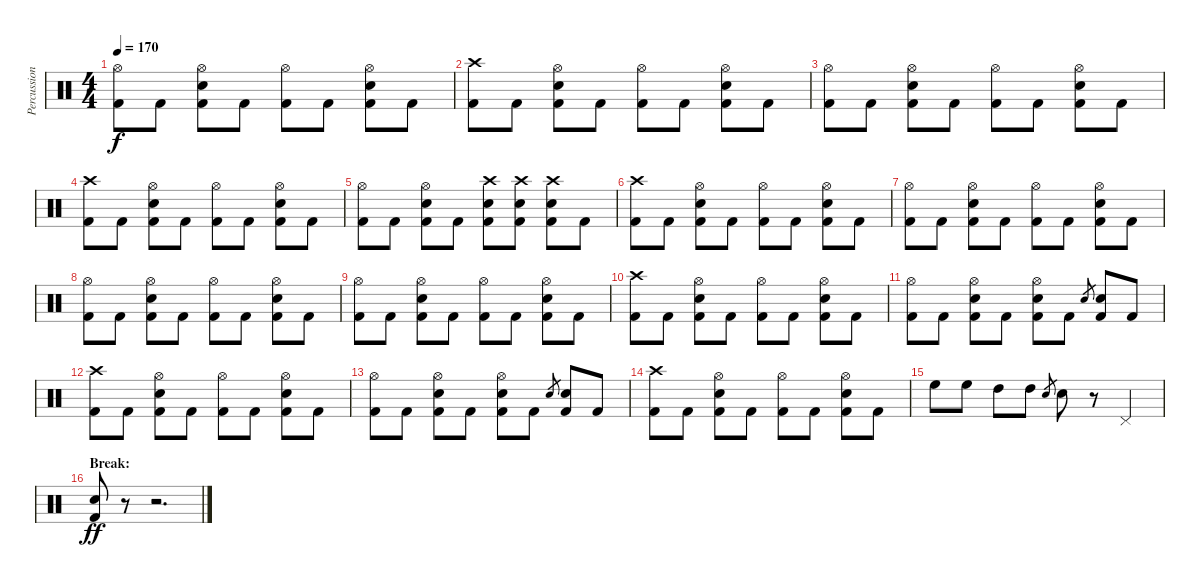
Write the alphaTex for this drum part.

\track ("Percussion" "Percussion") {instrument percussion}
\staff {score}
\articulation defaults
\ts (4 4)
\tempo 170
\clef neutral
\ks c
("Hi-Hat (open)" "Kick (hit) 2").8{dy f} "Kick (hit) 2".8 ("Hi-Hat (open)" "Snare (hit) 2" "Kick (hit) 2").8 "Kick (hit) 2".8 ("Hi-Hat (open)" "Kick (hit) 2").8 "Kick (hit) 2".8 ("Hi-Hat (open)" "Snare (hit) 2" "Kick (hit) 2").8 "Kick (hit) 2".8 |
("Crash high (hit)" "Kick (hit) 2").8 "Kick (hit) 2".8 ("Hi-Hat (open)" "Snare (hit) 2" "Kick (hit) 2").8 "Kick (hit) 2".8 ("Hi-Hat (open)" "Kick (hit) 2").8 "Kick (hit) 2".8 ("Hi-Hat (open)" "Snare (hit) 2" "Kick (hit) 2").8 "Kick (hit) 2".8 |
("Hi-Hat (open)" "Kick (hit) 2").8 "Kick (hit) 2".8 ("Hi-Hat (open)" "Snare (hit) 2" "Kick (hit) 2").8 "Kick (hit) 2".8 ("Hi-Hat (open)" "Kick (hit) 2").8 "Kick (hit) 2".8 ("Hi-Hat (open)" "Snare (hit) 2" "Kick (hit) 2").8 "Kick (hit) 2".8 |
("Crash high (hit)" "Kick (hit) 2").8 "Kick (hit) 2".8 ("Hi-Hat (open)" "Snare (hit) 2" "Kick (hit) 2").8 "Kick (hit) 2".8 ("Hi-Hat (open)" "Kick (hit) 2").8 "Kick (hit) 2".8 ("Hi-Hat (open)" "Snare (hit) 2" "Kick (hit) 2").8 "Kick (hit) 2".8 |
("Hi-Hat (open)" "Kick (hit) 2").8 "Kick (hit) 2".8 ("Hi-Hat (open)" "Snare (hit) 2" "Kick (hit) 2").8 "Kick (hit) 2".8 ("Crash high (hit)" "Snare (hit) 2" "Kick (hit) 2").8 ("Crash high (hit)" "Snare (hit) 2" "Kick (hit) 2").8 ("Crash high (hit)" "Snare (hit) 2" "Kick (hit) 2").8 "Kick (hit) 2".8 |
("Crash high (hit)" "Kick (hit) 2").8 "Kick (hit) 2".8 ("Hi-Hat (open)" "Snare (hit) 2" "Kick (hit) 2").8 "Kick (hit) 2".8 ("Hi-Hat (open)" "Kick (hit) 2").8 "Kick (hit) 2".8 ("Hi-Hat (open)" "Snare (hit) 2" "Kick (hit) 2").8 "Kick (hit) 2".8 |
("Hi-Hat (open)" "Kick (hit) 2").8 "Kick (hit) 2".8 ("Hi-Hat (open)" "Snare (hit) 2" "Kick (hit) 2").8 "Kick (hit) 2".8 ("Hi-Hat (open)" "Kick (hit) 2").8 "Kick (hit) 2".8 ("Hi-Hat (open)" "Snare (hit) 2" "Kick (hit) 2").8 "Kick (hit) 2".8 |
("Hi-Hat (open)" "Kick (hit) 2").8 "Kick (hit) 2".8 ("Hi-Hat (open)" "Snare (hit) 2" "Kick (hit) 2").8 "Kick (hit) 2".8 ("Hi-Hat (open)" "Kick (hit) 2").8 "Kick (hit) 2".8 ("Hi-Hat (open)" "Snare (hit) 2" "Kick (hit) 2").8 "Kick (hit) 2".8 |
("Hi-Hat (open)" "Kick (hit) 2").8 "Kick (hit) 2".8 ("Hi-Hat (open)" "Snare (hit) 2" "Kick (hit) 2").8 "Kick (hit) 2".8 ("Hi-Hat (open)" "Kick (hit) 2").8 "Kick (hit) 2".8 ("Hi-Hat (open)" "Snare (hit) 2" "Kick (hit) 2").8 "Kick (hit) 2".8 |
("Crash high (hit)" "Kick (hit) 2").8 "Kick (hit) 2".8 ("Hi-Hat (open)" "Snare (hit) 2" "Kick (hit) 2").8 "Kick (hit) 2".8 ("Hi-Hat (open)" "Kick (hit) 2").8 "Kick (hit) 2".8 ("Hi-Hat (open)" "Snare (hit) 2" "Kick (hit) 2").8 "Kick (hit) 2".8 |
("Hi-Hat (open)" "Kick (hit) 2").8 "Kick (hit) 2".8 ("Hi-Hat (open)" "Snare (hit) 2" "Kick (hit) 2").8 "Kick (hit) 2".8 ("Hi-Hat (open)" "Snare (hit) 2" "Kick (hit) 2").8 "Kick (hit) 2".8 "Snare (hit) 2".8{gr} ("Snare (hit) 2" "Kick (hit) 2").8 "Kick (hit) 2".8 |
("Crash high (hit)" "Kick (hit) 2").8 "Kick (hit) 2".8 ("Hi-Hat (open)" "Snare (hit) 2" "Kick (hit) 2").8 "Kick (hit) 2".8 ("Hi-Hat (open)" "Kick (hit) 2").8 "Kick (hit) 2".8 ("Hi-Hat (open)" "Snare (hit) 2" "Kick (hit) 2").8 "Kick (hit) 2".8 |
("Hi-Hat (open)" "Kick (hit) 2").8 "Kick (hit) 2".8 ("Hi-Hat (open)" "Snare (hit) 2" "Kick (hit) 2").8 "Kick (hit) 2".8 ("Hi-Hat (open)" "Snare (hit) 2" "Kick (hit) 2").8 "Kick (hit) 2".8 "Snare (hit) 2".8{gr} ("Snare (hit) 2" "Kick (hit) 2").8 "Kick (hit) 2".8 |
("Crash high (hit)" "Kick (hit) 2").8 "Kick (hit) 2".8 ("Hi-Hat (open)" "Snare (hit) 2" "Kick (hit) 2").8 "Kick (hit) 2".8 ("Hi-Hat (open)" "Kick (hit) 2").8 "Kick (hit) 2".8 ("Hi-Hat (open)" "Snare (hit) 2" "Kick (hit) 2").8 "Kick (hit) 2".8 |
"High Floor Tom (hit)".8 "High Floor Tom (hit)".8 "High Tom (hit)".8 "High Tom (hit)".8 "Snare (hit) 2".8{gr} "Snare (hit) 2".8 r.8 "Pedal Hi-Hat (hit)".4 |
\section ("" "Break:")
("Snare (hit) 2" "Kick (hit) 2").8{dy ff} r.8 r.2{d}
